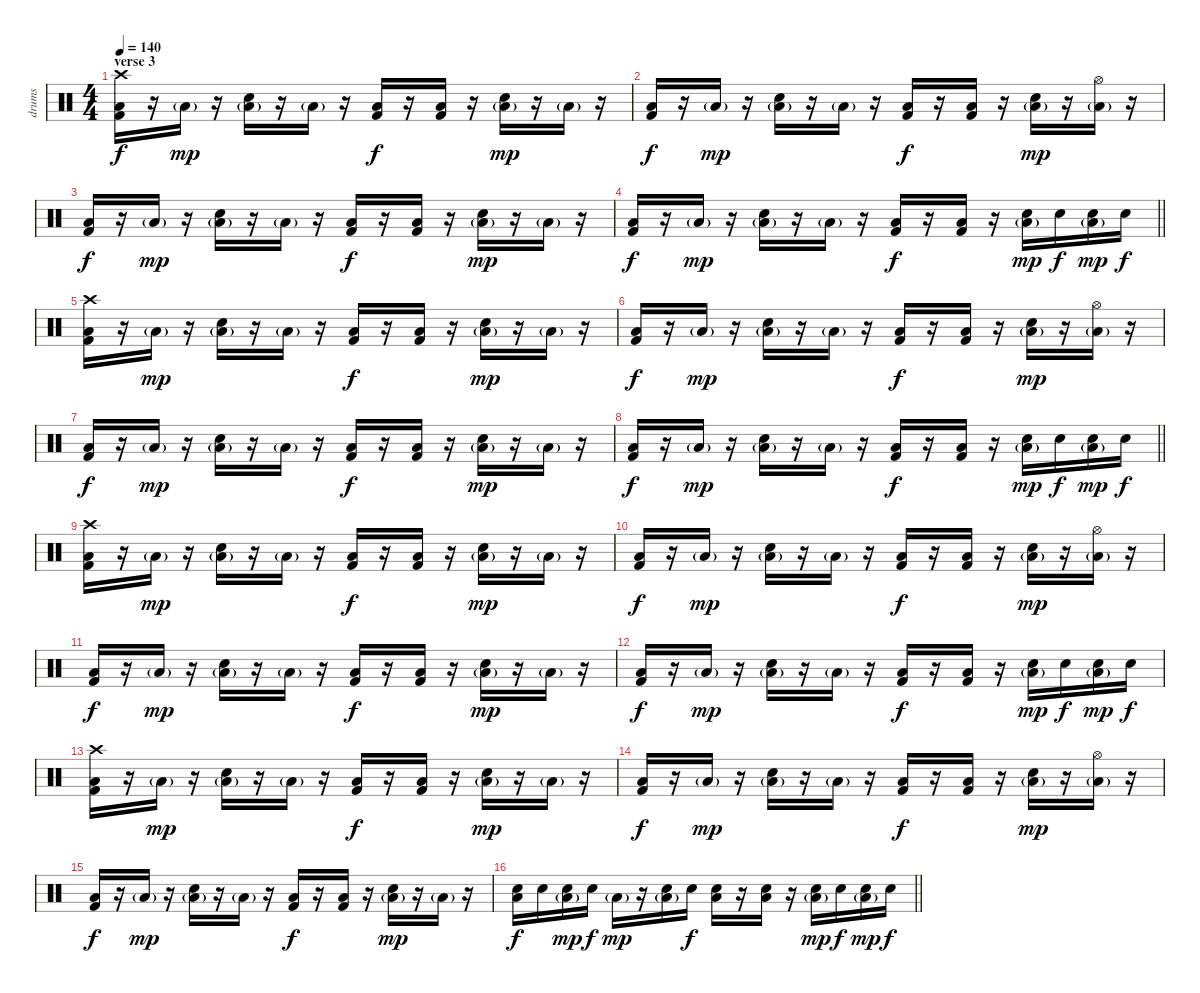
\track ("drums" "drums") {instrument percussion}
\staff {score}
\articulation defaults
\ts (4 4)
\section ("" "verse 3")
\tempo 140
\clef neutral
\ks c
("Kick (hit) 2" "Low Floor Tom (hit)" "Crash high (hit)").16{dy f} r.16 "Low Floor Tom (hit)"{g}.16{dy mp} r.16 ("Electric Snare (hit)" "Low Floor Tom (hit)"{g}).16 r.16 "Low Floor Tom (hit)"{g}.16 r.16 ("Kick (hit) 2" "Low Floor Tom (hit)").16{dy f} r.16 ("Kick (hit) 2" "Low Floor Tom (hit)").16 r.16 ("Electric Snare (hit)" "Low Floor Tom (hit)"{g}).16{dy mp} r.16 "Low Floor Tom (hit)"{g}.16 r.16 |
("Kick (hit) 2" "Low Floor Tom (hit)").16{dy f} r.16 "Low Floor Tom (hit)"{g}.16{dy mp} r.16 ("Electric Snare (hit)" "Low Floor Tom (hit)"{g}).16 r.16 "Low Floor Tom (hit)"{g}.16 r.16 ("Kick (hit) 2" "Low Floor Tom (hit)").16{dy f} r.16 ("Kick (hit) 2" "Low Floor Tom (hit)").16 r.16 ("Electric Snare (hit)" "Low Floor Tom (hit)"{g}).16{dy mp} r.16 ("Hi-Hat (open)" "Low Floor Tom (hit)"{g}).16 r.16 |
("Kick (hit) 2" "Low Floor Tom (hit)").16{dy f} r.16 "Low Floor Tom (hit)"{g}.16{dy mp} r.16 ("Electric Snare (hit)" "Low Floor Tom (hit)"{g}).16 r.16 "Low Floor Tom (hit)"{g}.16 r.16 ("Kick (hit) 2" "Low Floor Tom (hit)").16{dy f} r.16 ("Kick (hit) 2" "Low Floor Tom (hit)").16 r.16 ("Electric Snare (hit)" "Low Floor Tom (hit)"{g}).16{dy mp} r.16 "Low Floor Tom (hit)"{g}.16 r.16 |
\barLineRight lightlight
("Kick (hit) 2" "Low Floor Tom (hit)").16{dy f} r.16 "Low Floor Tom (hit)"{g}.16{dy mp} r.16 ("Electric Snare (hit)" "Low Floor Tom (hit)"{g}).16 r.16 "Low Floor Tom (hit)"{g}.16 r.16 ("Kick (hit) 2" "Low Floor Tom (hit)").16{dy f} r.16 ("Kick (hit) 2" "Low Floor Tom (hit)").16 r.16 ("Electric Snare (hit)" "Low Floor Tom (hit)"{g}).16{dy mp} "Electric Snare (hit)".16{dy f} ("Electric Snare (hit)" "Low Floor Tom (hit)"{g}).16{dy mp} "Electric Snare (hit)".16{dy f} |
("Kick (hit) 2" "Low Floor Tom (hit)" "Crash high (hit)").16 r.16 "Low Floor Tom (hit)"{g}.16{dy mp} r.16 ("Electric Snare (hit)" "Low Floor Tom (hit)"{g}).16 r.16 "Low Floor Tom (hit)"{g}.16 r.16 ("Kick (hit) 2" "Low Floor Tom (hit)").16{dy f} r.16 ("Kick (hit) 2" "Low Floor Tom (hit)").16 r.16 ("Electric Snare (hit)" "Low Floor Tom (hit)"{g}).16{dy mp} r.16 "Low Floor Tom (hit)"{g}.16 r.16 |
("Kick (hit) 2" "Low Floor Tom (hit)").16{dy f} r.16 "Low Floor Tom (hit)"{g}.16{dy mp} r.16 ("Electric Snare (hit)" "Low Floor Tom (hit)"{g}).16 r.16 "Low Floor Tom (hit)"{g}.16 r.16 ("Kick (hit) 2" "Low Floor Tom (hit)").16{dy f} r.16 ("Kick (hit) 2" "Low Floor Tom (hit)").16 r.16 ("Electric Snare (hit)" "Low Floor Tom (hit)"{g}).16{dy mp} r.16 ("Hi-Hat (open)" "Low Floor Tom (hit)"{g}).16 r.16 |
("Kick (hit) 2" "Low Floor Tom (hit)").16{dy f} r.16 "Low Floor Tom (hit)"{g}.16{dy mp} r.16 ("Electric Snare (hit)" "Low Floor Tom (hit)"{g}).16 r.16 "Low Floor Tom (hit)"{g}.16 r.16 ("Kick (hit) 2" "Low Floor Tom (hit)").16{dy f} r.16 ("Kick (hit) 2" "Low Floor Tom (hit)").16 r.16 ("Electric Snare (hit)" "Low Floor Tom (hit)"{g}).16{dy mp} r.16 "Low Floor Tom (hit)"{g}.16 r.16 |
\barLineRight lightlight
("Kick (hit) 2" "Low Floor Tom (hit)").16{dy f} r.16 "Low Floor Tom (hit)"{g}.16{dy mp} r.16 ("Electric Snare (hit)" "Low Floor Tom (hit)"{g}).16 r.16 "Low Floor Tom (hit)"{g}.16 r.16 ("Kick (hit) 2" "Low Floor Tom (hit)").16{dy f} r.16 ("Kick (hit) 2" "Low Floor Tom (hit)").16 r.16 ("Electric Snare (hit)" "Low Floor Tom (hit)"{g}).16{dy mp} "Electric Snare (hit)".16{dy f} ("Electric Snare (hit)" "Low Floor Tom (hit)"{g}).16{dy mp} "Electric Snare (hit)".16{dy f} |
("Kick (hit) 2" "Low Floor Tom (hit)" "Crash high (hit)").16 r.16 "Low Floor Tom (hit)"{g}.16{dy mp} r.16 ("Electric Snare (hit)" "Low Floor Tom (hit)"{g}).16 r.16 "Low Floor Tom (hit)"{g}.16 r.16 ("Kick (hit) 2" "Low Floor Tom (hit)").16{dy f} r.16 ("Kick (hit) 2" "Low Floor Tom (hit)").16 r.16 ("Electric Snare (hit)" "Low Floor Tom (hit)"{g}).16{dy mp} r.16 "Low Floor Tom (hit)"{g}.16 r.16 |
("Kick (hit) 2" "Low Floor Tom (hit)").16{dy f} r.16 "Low Floor Tom (hit)"{g}.16{dy mp} r.16 ("Electric Snare (hit)" "Low Floor Tom (hit)"{g}).16 r.16 "Low Floor Tom (hit)"{g}.16 r.16 ("Kick (hit) 2" "Low Floor Tom (hit)").16{dy f} r.16 ("Kick (hit) 2" "Low Floor Tom (hit)").16 r.16 ("Electric Snare (hit)" "Low Floor Tom (hit)"{g}).16{dy mp} r.16 ("Hi-Hat (open)" "Low Floor Tom (hit)"{g}).16 r.16 |
("Kick (hit) 2" "Low Floor Tom (hit)").16{dy f} r.16 "Low Floor Tom (hit)"{g}.16{dy mp} r.16 ("Electric Snare (hit)" "Low Floor Tom (hit)"{g}).16 r.16 "Low Floor Tom (hit)"{g}.16 r.16 ("Kick (hit) 2" "Low Floor Tom (hit)").16{dy f} r.16 ("Kick (hit) 2" "Low Floor Tom (hit)").16 r.16 ("Electric Snare (hit)" "Low Floor Tom (hit)"{g}).16{dy mp} r.16 "Low Floor Tom (hit)"{g}.16 r.16 |
("Kick (hit) 2" "Low Floor Tom (hit)").16{dy f} r.16 "Low Floor Tom (hit)"{g}.16{dy mp} r.16 ("Electric Snare (hit)" "Low Floor Tom (hit)"{g}).16 r.16 "Low Floor Tom (hit)"{g}.16 r.16 ("Kick (hit) 2" "Low Floor Tom (hit)").16{dy f} r.16 ("Kick (hit) 2" "Low Floor Tom (hit)").16 r.16 ("Electric Snare (hit)" "Low Floor Tom (hit)"{g}).16{dy mp} "Electric Snare (hit)".16{dy f} ("Electric Snare (hit)" "Low Floor Tom (hit)"{g}).16{dy mp} "Electric Snare (hit)".16{dy f} |
("Kick (hit) 2" "Low Floor Tom (hit)" "Crash high (hit)").16 r.16 "Low Floor Tom (hit)"{g}.16{dy mp} r.16 ("Electric Snare (hit)" "Low Floor Tom (hit)"{g}).16 r.16 "Low Floor Tom (hit)"{g}.16 r.16 ("Kick (hit) 2" "Low Floor Tom (hit)").16{dy f} r.16 ("Kick (hit) 2" "Low Floor Tom (hit)").16 r.16 ("Electric Snare (hit)" "Low Floor Tom (hit)"{g}).16{dy mp} r.16 "Low Floor Tom (hit)"{g}.16 r.16 |
("Kick (hit) 2" "Low Floor Tom (hit)").16{dy f} r.16 "Low Floor Tom (hit)"{g}.16{dy mp} r.16 ("Electric Snare (hit)" "Low Floor Tom (hit)"{g}).16 r.16 "Low Floor Tom (hit)"{g}.16 r.16 ("Kick (hit) 2" "Low Floor Tom (hit)").16{dy f} r.16 ("Kick (hit) 2" "Low Floor Tom (hit)").16 r.16 ("Electric Snare (hit)" "Low Floor Tom (hit)"{g}).16{dy mp} r.16 ("Hi-Hat (open)" "Low Floor Tom (hit)"{g}).16 r.16 |
("Kick (hit) 2" "Low Floor Tom (hit)").16{dy f} r.16 "Low Floor Tom (hit)"{g}.16{dy mp} r.16 ("Electric Snare (hit)" "Low Floor Tom (hit)"{g}).16 r.16 "Low Floor Tom (hit)"{g}.16 r.16 ("Kick (hit) 2" "Low Floor Tom (hit)").16{dy f} r.16 ("Kick (hit) 2" "Low Floor Tom (hit)").16 r.16 ("Electric Snare (hit)" "Low Floor Tom (hit)"{g}).16{dy mp} r.16 "Low Floor Tom (hit)"{g}.16 r.16 |
\barLineRight lightlight
("Electric Snare (hit)" "Low Floor Tom (hit)").16{dy f} "Electric Snare (hit)".16 ("Electric Snare (hit)" "Low Floor Tom (hit)"{g}).16{dy mp} "Electric Snare (hit)".16{dy f} "Low Floor Tom (hit)"{g}.16{dy mp} r.16 ("Electric Snare (hit)" "Low Floor Tom (hit)"{g}).16 "Electric Snare (hit)".16{dy f} ("Electric Snare (hit)" "Low Floor Tom (hit)").16 r.16 ("Electric Snare (hit)" "Low Floor Tom (hit)").16 r.16 ("Electric Snare (hit)" "Low Floor Tom (hit)"{g}).16{dy mp} "Electric Snare (hit)".16{dy f} ("Electric Snare (hit)" "Low Floor Tom (hit)"{g}).16{dy mp} "Electric Snare (hit)".16{dy f}
